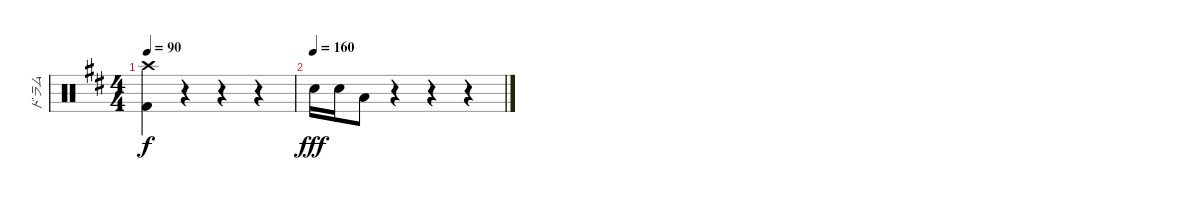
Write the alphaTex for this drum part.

\track ("ドラム" "ドラム") {mute instrument percussion}
\staff {score}
\articulation defaults
\ts (4 4)
\tempo 90
\clef neutral
\ks d
("Kick (hit) 2" "Crash high (hit)").4{dy f} r.4 r.4 r.4 |
\tempo (160)
"Snare (hit) 2".16{dy fff} "Snare (hit) 2".16 "Low Tom (hit)".8 r.4 r.4 r.4
